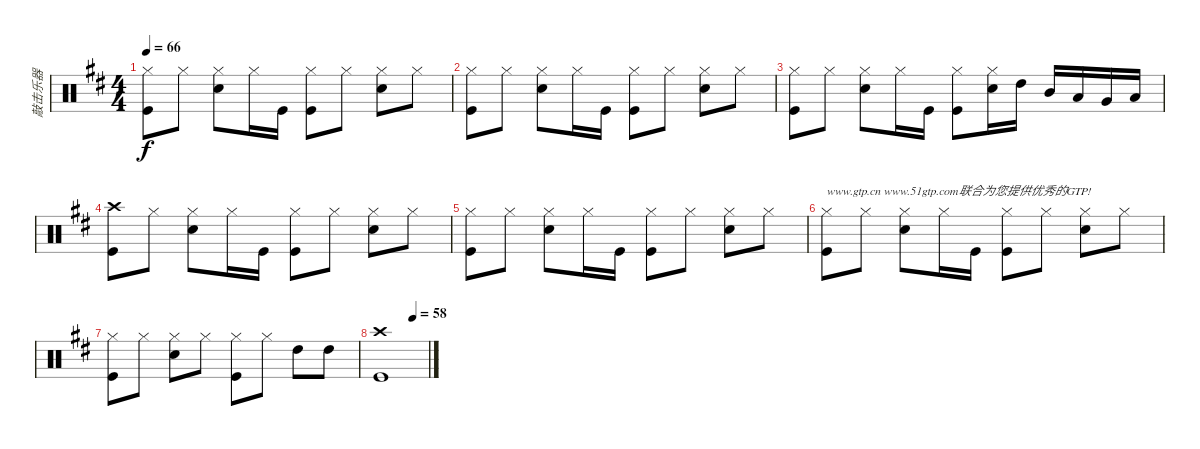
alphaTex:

\track ("敲击乐器" "敲击乐器") {instrument percussion}
\staff {score}
\articulation defaults
\ts (4 4)
\tempo 66
\clef neutral
\ks d
("Hi-Hat (closed)" "Kick (hit)").8{dy f} "Hi-Hat (closed)".8 ("Snare (hit) 2" "Hi-Hat (closed)").8 "Hi-Hat (closed)".16 "Kick (hit)".16 ("Kick (hit)" "Hi-Hat (closed)").8 "Hi-Hat (closed)".8 ("Snare (hit) 2" "Hi-Hat (closed)").8 "Hi-Hat (closed)".8 |
("Hi-Hat (closed)" "Kick (hit)").8 "Hi-Hat (closed)".8 ("Snare (hit) 2" "Hi-Hat (closed)").8 "Hi-Hat (closed)".16 "Kick (hit)".16 ("Kick (hit)" "Hi-Hat (closed)").8 "Hi-Hat (closed)".8 ("Snare (hit) 2" "Hi-Hat (closed)").8 "Hi-Hat (closed)".8 |
("Hi-Hat (closed)" "Kick (hit)").8 "Hi-Hat (closed)".8 ("Snare (hit) 2" "Hi-Hat (closed)").8 "Hi-Hat (closed)".16 "Kick (hit)".16 ("Kick (hit)" "Hi-Hat (closed)").8 ("Snare (hit) 2" "Hi-Hat (closed)").16 "High Tom (hit)".16 "Mid Tom (hit)".16 "Low Tom (hit)".16 "Very Low Tom (hit)".16 "Low Floor Tom (hit)".16 |
("Kick (hit)" "Crash high (hit)").8 "Hi-Hat (closed)".8 ("Snare (hit) 2" "Hi-Hat (closed)").8 "Hi-Hat (closed)".16 "Kick (hit)".16 ("Kick (hit)" "Hi-Hat (closed)").8 "Hi-Hat (closed)".8 ("Snare (hit) 2" "Hi-Hat (closed)").8 "Hi-Hat (closed)".8 |
("Hi-Hat (closed)" "Kick (hit)").8 "Hi-Hat (closed)".8 ("Snare (hit) 2" "Hi-Hat (closed)").8 "Hi-Hat (closed)".16 "Kick (hit)".16 ("Kick (hit)" "Hi-Hat (closed)").8 "Hi-Hat (closed)".8 ("Snare (hit) 2" "Hi-Hat (closed)").8 "Hi-Hat (closed)".8 |
("Hi-Hat (closed)" "Kick (hit)").8{txt "www.gtp.cn www.51gtp.com联合为您提供优秀的GTP!"} "Hi-Hat (closed)".8 ("Snare (hit) 2" "Hi-Hat (closed)").8 "Hi-Hat (closed)".16 "Kick (hit)".16 ("Kick (hit)" "Hi-Hat (closed)").8 "Hi-Hat (closed)".8 ("Snare (hit) 2" "Hi-Hat (closed)").8 "Hi-Hat (closed)".8 |
("Hi-Hat (closed)" "Kick (hit)").8 "Hi-Hat (closed)".8 ("Snare (hit) 2" "Hi-Hat (closed)").8 "Hi-Hat (closed)".8 ("Kick (hit)" "Hi-Hat (closed)").8 "Hi-Hat (closed)".8 "High Tom (hit)".8 "High Tom (hit)".8 |
\tempo (58 0.6875)
("Crash high (hit)" "Kick (hit)").1
